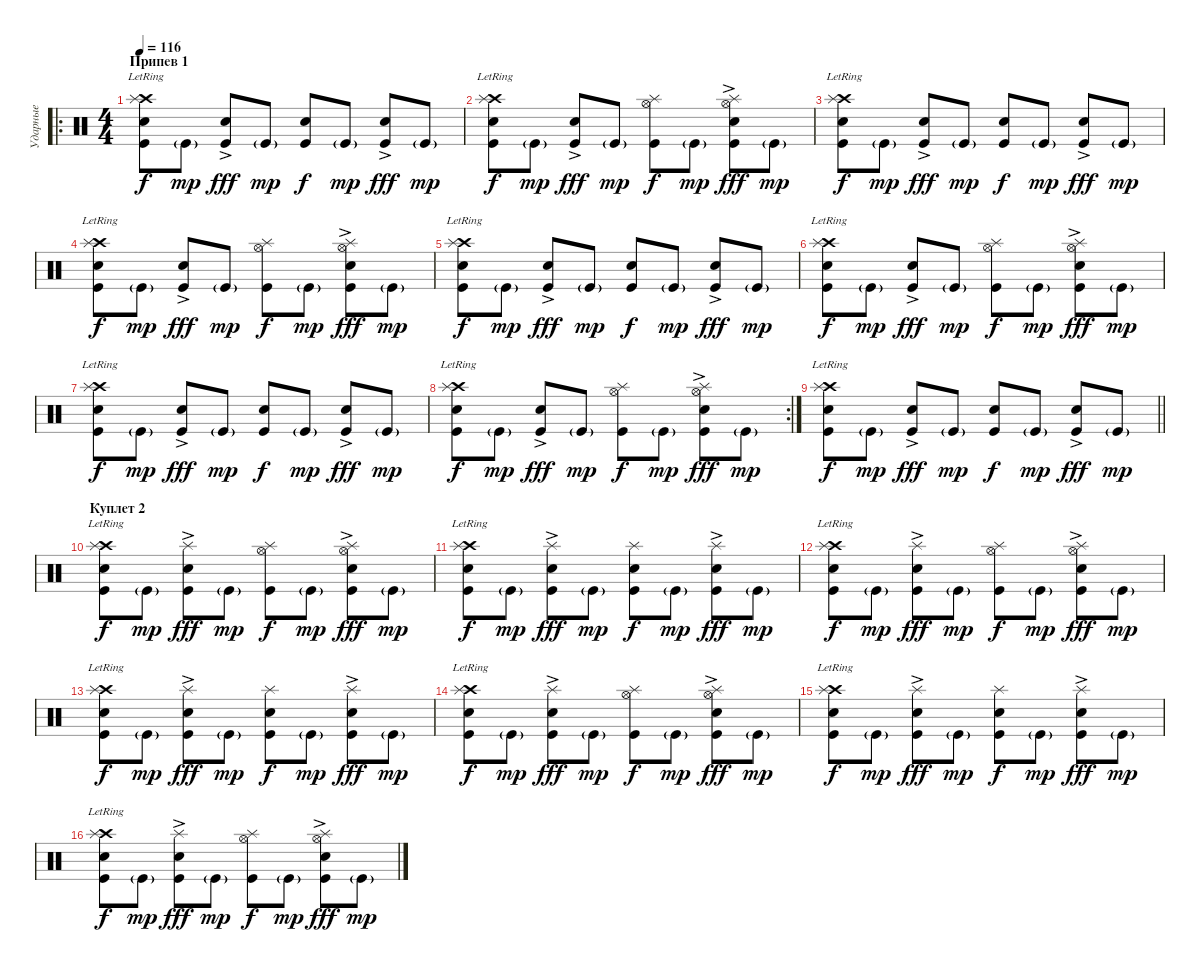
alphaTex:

\track ("Ударные" "Ударные") {instrument percussion}
\staff {score}
\articulation defaults
\ro
\ts (4 4)
\section ("" "Припев 1")
\tempo 116
\clef neutral
\ks c
("Crash high (hit)"{lr} "Splash (hit)" "Snare (hit) 2" "Kick (hit)"{lr}).8{dy f} "Kick (hit)"{g}.8{dy mp} ("Electric Snare (hit)"{ac} "Kick (hit)").8{dy fff} "Kick (hit)"{g}.8{dy mp} ("Snare (hit) 2" "Kick (hit)").8{dy f} "Kick (hit)"{g}.8{dy mp} ("Electric Snare (hit)"{ac} "Kick (hit)").8{dy fff} "Kick (hit)"{g}.8{dy mp} |
("Crash high (hit)"{lr} "Splash (hit)" "Snare (hit) 2" "Kick (hit)"{lr}).8{dy f} "Kick (hit)"{g}.8{dy mp} ("Electric Snare (hit)"{ac} "Kick (hit)").8{dy fff} "Kick (hit)"{g}.8{dy mp} ("Splash (hit)" "Hi-Hat (open)" "Kick (hit)").8{dy f} "Kick (hit)"{g}.8{dy mp} ("Splash (hit)" "Hi-Hat (open)" "Electric Snare (hit)"{ac} "Kick (hit)").8{dy fff} "Kick (hit)"{g}.8{dy mp} |
("Crash high (hit)"{lr} "Splash (hit)" "Snare (hit) 2" "Kick (hit)"{lr}).8{dy f} "Kick (hit)"{g}.8{dy mp} ("Electric Snare (hit)"{ac} "Kick (hit)").8{dy fff} "Kick (hit)"{g}.8{dy mp} ("Snare (hit) 2" "Kick (hit)").8{dy f} "Kick (hit)"{g}.8{dy mp} ("Electric Snare (hit)"{ac} "Kick (hit)").8{dy fff} "Kick (hit)"{g}.8{dy mp} |
("Crash high (hit)"{lr} "Splash (hit)" "Snare (hit) 2" "Kick (hit)"{lr}).8{dy f} "Kick (hit)"{g}.8{dy mp} ("Electric Snare (hit)"{ac} "Kick (hit)").8{dy fff} "Kick (hit)"{g}.8{dy mp} ("Splash (hit)" "Hi-Hat (open)" "Kick (hit)").8{dy f} "Kick (hit)"{g}.8{dy mp} ("Splash (hit)" "Hi-Hat (open)" "Electric Snare (hit)"{ac} "Kick (hit)").8{dy fff} "Kick (hit)"{g}.8{dy mp} |
("Crash high (hit)"{lr} "Splash (hit)" "Snare (hit) 2" "Kick (hit)"{lr}).8{dy f} "Kick (hit)"{g}.8{dy mp} ("Electric Snare (hit)"{ac} "Kick (hit)").8{dy fff} "Kick (hit)"{g}.8{dy mp} ("Snare (hit) 2" "Kick (hit)").8{dy f} "Kick (hit)"{g}.8{dy mp} ("Electric Snare (hit)"{ac} "Kick (hit)").8{dy fff} "Kick (hit)"{g}.8{dy mp} |
("Crash high (hit)"{lr} "Splash (hit)" "Snare (hit) 2" "Kick (hit)"{lr}).8{dy f} "Kick (hit)"{g}.8{dy mp} ("Electric Snare (hit)"{ac} "Kick (hit)").8{dy fff} "Kick (hit)"{g}.8{dy mp} ("Splash (hit)" "Hi-Hat (open)" "Kick (hit)").8{dy f} "Kick (hit)"{g}.8{dy mp} ("Splash (hit)" "Hi-Hat (open)" "Electric Snare (hit)"{ac} "Kick (hit)").8{dy fff} "Kick (hit)"{g}.8{dy mp} |
("Crash high (hit)"{lr} "Splash (hit)" "Snare (hit) 2" "Kick (hit)"{lr}).8{dy f} "Kick (hit)"{g}.8{dy mp} ("Electric Snare (hit)"{ac} "Kick (hit)").8{dy fff} "Kick (hit)"{g}.8{dy mp} ("Snare (hit) 2" "Kick (hit)").8{dy f} "Kick (hit)"{g}.8{dy mp} ("Electric Snare (hit)"{ac} "Kick (hit)").8{dy fff} "Kick (hit)"{g}.8{dy mp} |
\rc 2
("Crash high (hit)"{lr} "Splash (hit)" "Snare (hit) 2" "Kick (hit)"{lr}).8{dy f} "Kick (hit)"{g}.8{dy mp} ("Electric Snare (hit)"{ac} "Kick (hit)").8{dy fff} "Kick (hit)"{g}.8{dy mp} ("Splash (hit)" "Hi-Hat (open)" "Kick (hit)").8{dy f} "Kick (hit)"{g}.8{dy mp} ("Splash (hit)" "Hi-Hat (open)" "Electric Snare (hit)"{ac} "Kick (hit)").8{dy fff} "Kick (hit)"{g}.8{dy mp} |
\barLineRight lightlight
("Crash high (hit)"{lr} "Splash (hit)" "Snare (hit) 2" "Kick (hit)"{lr}).8{dy f} "Kick (hit)"{g}.8{dy mp} ("Electric Snare (hit)"{ac} "Kick (hit)").8{dy fff} "Kick (hit)"{g}.8{dy mp} ("Snare (hit) 2" "Kick (hit)").8{dy f} "Kick (hit)"{g}.8{dy mp} ("Electric Snare (hit)"{ac} "Kick (hit)").8{dy fff} "Kick (hit)"{g}.8{dy mp} |
\section ("" "Куплет 2")
("Crash high (hit)"{lr} "Splash (hit)" "Snare (hit) 2" "Kick (hit)"{lr}).8{dy f} "Kick (hit)"{g}.8{dy mp} ("Splash (hit)" "Electric Snare (hit)"{ac} "Kick (hit)").8{dy fff} "Kick (hit)"{g}.8{dy mp} ("Splash (hit)" "Hi-Hat (open)" "Kick (hit)").8{dy f} "Kick (hit)"{g}.8{dy mp} ("Splash (hit)" "Hi-Hat (open)" "Electric Snare (hit)"{ac} "Kick (hit)").8{dy fff} "Kick (hit)"{g}.8{dy mp} |
("Crash high (hit)"{lr} "Splash (hit)" "Snare (hit) 2" "Kick (hit)"{lr}).8{dy f} "Kick (hit)"{g}.8{dy mp} ("Splash (hit)" "Electric Snare (hit)"{ac} "Kick (hit)").8{dy fff} "Kick (hit)"{g}.8{dy mp} ("Splash (hit)" "Snare (hit) 2" "Kick (hit)").8{dy f} "Kick (hit)"{g}.8{dy mp} ("Splash (hit)" "Electric Snare (hit)"{ac} "Kick (hit)").8{dy fff} "Kick (hit)"{g}.8{dy mp} |
("Crash high (hit)"{lr} "Splash (hit)" "Snare (hit) 2" "Kick (hit)"{lr}).8{dy f} "Kick (hit)"{g}.8{dy mp} ("Splash (hit)" "Electric Snare (hit)"{ac} "Kick (hit)").8{dy fff} "Kick (hit)"{g}.8{dy mp} ("Splash (hit)" "Hi-Hat (open)" "Kick (hit)").8{dy f} "Kick (hit)"{g}.8{dy mp} ("Splash (hit)" "Hi-Hat (open)" "Electric Snare (hit)"{ac} "Kick (hit)").8{dy fff} "Kick (hit)"{g}.8{dy mp} |
("Crash high (hit)"{lr} "Splash (hit)" "Snare (hit) 2" "Kick (hit)"{lr}).8{dy f} "Kick (hit)"{g}.8{dy mp} ("Splash (hit)" "Electric Snare (hit)"{ac} "Kick (hit)").8{dy fff} "Kick (hit)"{g}.8{dy mp} ("Splash (hit)" "Snare (hit) 2" "Kick (hit)").8{dy f} "Kick (hit)"{g}.8{dy mp} ("Splash (hit)" "Electric Snare (hit)"{ac} "Kick (hit)").8{dy fff} "Kick (hit)"{g}.8{dy mp} |
("Crash high (hit)"{lr} "Splash (hit)" "Snare (hit) 2" "Kick (hit)"{lr}).8{dy f} "Kick (hit)"{g}.8{dy mp} ("Splash (hit)" "Electric Snare (hit)"{ac} "Kick (hit)").8{dy fff} "Kick (hit)"{g}.8{dy mp} ("Splash (hit)" "Hi-Hat (open)" "Kick (hit)").8{dy f} "Kick (hit)"{g}.8{dy mp} ("Splash (hit)" "Hi-Hat (open)" "Electric Snare (hit)"{ac} "Kick (hit)").8{dy fff} "Kick (hit)"{g}.8{dy mp} |
("Crash high (hit)"{lr} "Splash (hit)" "Snare (hit) 2" "Kick (hit)"{lr}).8{dy f} "Kick (hit)"{g}.8{dy mp} ("Splash (hit)" "Electric Snare (hit)"{ac} "Kick (hit)").8{dy fff} "Kick (hit)"{g}.8{dy mp} ("Splash (hit)" "Snare (hit) 2" "Kick (hit)").8{dy f} "Kick (hit)"{g}.8{dy mp} ("Splash (hit)" "Electric Snare (hit)"{ac} "Kick (hit)").8{dy fff} "Kick (hit)"{g}.8{dy mp} |
("Crash high (hit)"{lr} "Splash (hit)" "Snare (hit) 2" "Kick (hit)"{lr}).8{dy f} "Kick (hit)"{g}.8{dy mp} ("Splash (hit)" "Electric Snare (hit)"{ac} "Kick (hit)").8{dy fff} "Kick (hit)"{g}.8{dy mp} ("Splash (hit)" "Hi-Hat (open)" "Kick (hit)").8{dy f} "Kick (hit)"{g}.8{dy mp} ("Splash (hit)" "Hi-Hat (open)" "Electric Snare (hit)"{ac} "Kick (hit)").8{dy fff} "Kick (hit)"{g}.8{dy mp}
